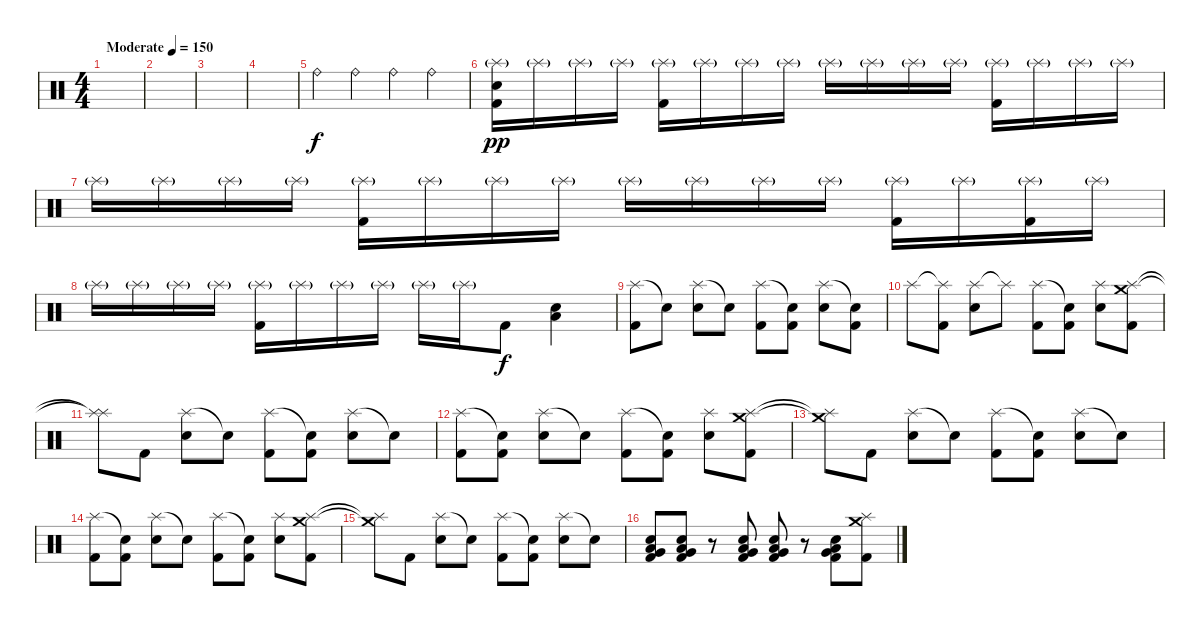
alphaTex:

\track (" " " ") {instrument percussion}
\staff {score}
\articulation defaults
\ts (4 4)
\tempo (150 "Moderate")
\clef neutral
\ks c
|
|
|
|
"Ride (bell)".4 "Ride (bell)".4 "Ride (bell)".4 "Ride (bell)".4 |
("Splash (hit)"{g} "Electric Snare (hit)" "Kick (hit) 2").16{dy pp} "Splash (hit)"{g}.16 "Splash (hit)"{g}.16 "Splash (hit)"{g}.16 ("Splash (hit)"{g} "Kick (hit) 2").16 "Splash (hit)"{g}.16 "Splash (hit)"{g}.16 "Splash (hit)"{g}.16 "Splash (hit)"{g}.16 "Splash (hit)"{g}.16 "Splash (hit)"{g}.16 "Splash (hit)"{g}.16 ("Splash (hit)"{g} "Kick (hit) 2").16 "Splash (hit)"{g}.16 "Splash (hit)"{g}.16 "Splash (hit)"{g}.16 |
"Splash (hit)"{g}.16 "Splash (hit)"{g}.16 "Splash (hit)"{g}.16 "Splash (hit)"{g}.16 ("Splash (hit)"{g} "Kick (hit) 2").16 "Splash (hit)"{g}.16 "Splash (hit)"{g}.16 "Splash (hit)"{g}.16 "Splash (hit)"{g}.16 "Splash (hit)"{g}.16 "Splash (hit)"{g}.16 "Splash (hit)"{g}.16 ("Splash (hit)"{g} "Kick (hit) 2").16 "Splash (hit)"{g}.16 ("Splash (hit)"{g} "Kick (hit) 2").16 "Splash (hit)"{g}.16 |
"Splash (hit)"{g}.16 "Splash (hit)"{g}.16 "Splash (hit)"{g}.16 "Splash (hit)"{g}.16 ("Splash (hit)"{g} "Kick (hit) 2").16 "Splash (hit)"{g}.16 "Splash (hit)"{g}.16 "Splash (hit)"{g}.16 "Splash (hit)"{g}.16 "Splash (hit)"{g}.16 "Kick (hit) 2".8{dy f} ("Electric Snare (hit)" "Low Floor Tom (hit)").4 |
("Splash (hit)" "Kick (hit) 2").8 "Snare (hit)"{t}.8 ("Splash (hit)" "Electric Snare (hit)").8 "Snare (hit)"{t}.8 ("Splash (hit)" "Kick (hit) 2").8 ("Snare (hit)"{t} "Kick (hit) 2").8 ("Splash (hit)" "Electric Snare (hit)").8 ("Snare (hit)"{t} "Kick (hit) 2").8 |
"Splash (hit)".8 ("Splash (hit)"{t} "Kick (hit) 2").8 ("Splash (hit)" "Electric Snare (hit)").8 "Splash (hit)"{t}.8 ("Splash (hit)" "Kick (hit) 2").8 ("Snare (hit)"{t} "Kick (hit) 2").8 ("Splash (hit)" "Electric Snare (hit)").8 ("Crash medium (hit)" "Splash (hit)" "Kick (hit) 2").8 |
("Splash (hit)"{t} "Splash (hit)"{t}).8 "Kick (hit) 2".8 ("Splash (hit)" "Electric Snare (hit)").8 "Snare (hit)"{t}.8 ("Splash (hit)" "Kick (hit) 2").8 ("Snare (hit)"{t} "Kick (hit) 2").8 ("Splash (hit)" "Electric Snare (hit)").8 "Snare (hit)"{t}.8 |
("Splash (hit)" "Kick (hit) 2").8 ("Snare (hit)"{t} "Kick (hit) 2").8 ("Splash (hit)" "Electric Snare (hit)").8 "Snare (hit)"{t}.8 ("Splash (hit)" "Kick (hit) 2").8 ("Snare (hit)"{t} "Kick (hit) 2").8 ("Splash (hit)" "Electric Snare (hit)").8 ("Crash medium (hit)" "Splash (hit)" "Kick (hit) 2").8 |
("Crash medium (hit)"{t} "Splash (hit)"{t}).8 "Kick (hit) 2".8 ("Splash (hit)" "Electric Snare (hit)").8 "Snare (hit)"{t}.8 ("Splash (hit)" "Kick (hit) 2").8 ("Snare (hit)"{t} "Kick (hit) 2").8 ("Splash (hit)" "Electric Snare (hit)").8 "Snare (hit)"{t}.8 |
("Splash (hit)" "Kick (hit) 2").8 ("Snare (hit)"{t} "Kick (hit) 2").8 ("Splash (hit)" "Electric Snare (hit)").8 "Snare (hit)"{t}.8 ("Splash (hit)" "Kick (hit) 2").8 ("Snare (hit)"{t} "Kick (hit) 2").8 ("Splash (hit)" "Electric Snare (hit)").8 ("Crash medium (hit)" "Splash (hit)" "Kick (hit) 2").8 |
("Crash medium (hit)"{t} "Splash (hit)"{t}).8 "Kick (hit) 2".8 ("Splash (hit)" "Electric Snare (hit)").8 "Snare (hit)"{t}.8 ("Splash (hit)" "Kick (hit) 2").8 ("Snare (hit)"{t} "Kick (hit) 2").8 ("Splash (hit)" "Electric Snare (hit)").8 "Snare (hit)"{t}.8 |
("Electric Snare (hit)" "Low Floor Tom (hit)" "Very Low Tom (hit)" "Kick (hit) 2").8 ("Electric Snare (hit)" "Low Floor Tom (hit)" "Very Low Tom (hit)" "Kick (hit) 2").8 r.8 ("Electric Snare (hit)" "Low Floor Tom (hit)" "Very Low Tom (hit)" "Kick (hit) 2").8 ("Electric Snare (hit)" "Low Floor Tom (hit)" "Very Low Tom (hit)" "Kick (hit) 2").8 r.8 ("Electric Snare (hit)" "Low Floor Tom (hit)" "Very Low Tom (hit)" "Kick (hit) 2").8 ("Splash (hit)" "Crash medium (hit)" "Kick (hit) 2").8
